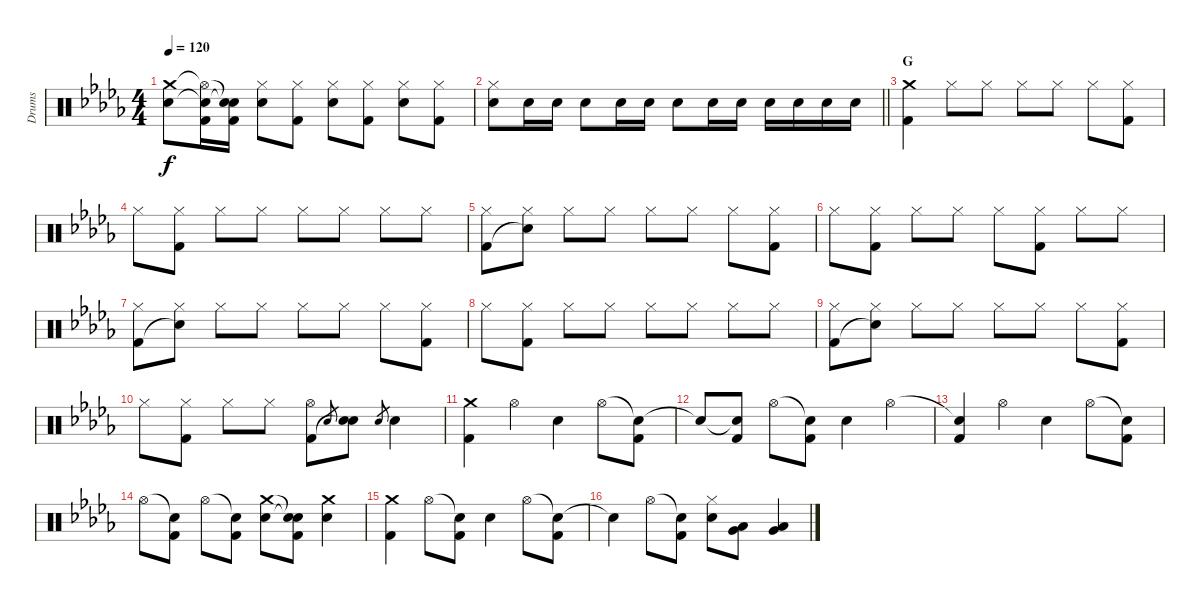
\track ("Drums" "Drums") {instrument percussion}
\staff {score}
\articulation defaults
\ts (4 4)
\tempo 120
\clef neutral
\ks db
("Crash medium (hit)" "Electric Snare (hit)").8{dy f} ("Hi-Hat (open)"{t} "Snare (hit)"{t} "Kick (hit) 2").16 ("Snare (hit)"{t} "Snare (hit)"{t} "Kick (hit) 2").16 ("Hi-Hat (closed)" "Electric Snare (hit)").8 ("Hi-Hat (closed)" "Kick (hit) 2").8 ("Hi-Hat (closed)" "Electric Snare (hit)").8 ("Hi-Hat (closed)" "Kick (hit) 2").8 ("Hi-Hat (closed)" "Electric Snare (hit)").8 ("Hi-Hat (closed)" "Kick (hit) 2").8 |
\barLineRight lightlight
("Hi-Hat (closed)" "Electric Snare (hit)").8 "Electric Snare (hit)".16 "Electric Snare (hit)".16 "Electric Snare (hit)".8 "Electric Snare (hit)".16 "Electric Snare (hit)".16 "Electric Snare (hit)".8 "Electric Snare (hit)".16 "Electric Snare (hit)".16 "Electric Snare (hit)".16 "Electric Snare (hit)".16 "Electric Snare (hit)".16 "Electric Snare (hit)".16 |
\section ("" "G")
("Crash medium (hit)" "Kick (hit) 2").4 "Hi-Hat (closed)".8 "Hi-Hat (closed)".8 "Hi-Hat (closed)".8 "Hi-Hat (closed)".8 "Hi-Hat (closed)".8 ("Hi-Hat (closed)" "Kick (hit) 2").8 |
"Hi-Hat (closed)".8 ("Hi-Hat (closed)" "Kick (hit) 2").8 "Hi-Hat (closed)".8 "Hi-Hat (closed)".8 "Hi-Hat (closed)".8 "Hi-Hat (closed)".8 "Hi-Hat (closed)".8 "Hi-Hat (closed)".8 |
("Hi-Hat (closed)" "Kick (hit) 2").8 ("Hi-Hat (closed)" "Snare (hit)"{t}).8 "Hi-Hat (closed)".8 "Hi-Hat (closed)".8 "Hi-Hat (closed)".8 "Hi-Hat (closed)".8 "Hi-Hat (closed)".8 ("Hi-Hat (closed)" "Kick (hit) 2").8 |
"Hi-Hat (closed)".8 ("Hi-Hat (closed)" "Kick (hit) 2").8 "Hi-Hat (closed)".8 "Hi-Hat (closed)".8 "Hi-Hat (closed)".8 ("Hi-Hat (closed)" "Kick (hit) 2").8 "Hi-Hat (closed)".8 "Hi-Hat (closed)".8 |
("Hi-Hat (closed)" "Kick (hit) 2").8 ("Hi-Hat (closed)" "Snare (hit)"{t}).8 "Hi-Hat (closed)".8 "Hi-Hat (closed)".8 "Hi-Hat (closed)".8 "Hi-Hat (closed)".8 "Hi-Hat (closed)".8 ("Hi-Hat (closed)" "Kick (hit) 2").8 |
"Hi-Hat (closed)".8 ("Hi-Hat (closed)" "Kick (hit) 2").8 "Hi-Hat (closed)".8 "Hi-Hat (closed)".8 "Hi-Hat (closed)".8 "Hi-Hat (closed)".8 "Hi-Hat (closed)".8 "Hi-Hat (closed)".8 |
("Hi-Hat (closed)" "Kick (hit) 2").8 ("Hi-Hat (closed)" "Snare (hit)"{t}).8 "Hi-Hat (closed)".8 "Hi-Hat (closed)".8 "Hi-Hat (closed)".8 "Hi-Hat (closed)".8 "Hi-Hat (closed)".8 ("Hi-Hat (closed)" "Kick (hit) 2").8 |
"Hi-Hat (closed)".8 ("Hi-Hat (closed)" "Kick (hit) 2").8 "Hi-Hat (closed)".8 "Hi-Hat (closed)".8 ("Hi-Hat (open)" "Kick (hit) 2").8 "Electric Snare (hit)".8{gr} ("Electric Snare (hit)" "Snare (hit)"{t}).8 "Electric Snare (hit)".8{gr} "Electric Snare (hit)".4 |
("Crash medium (hit)" "Kick (hit) 2").4 "Hi-Hat (open)".4 "Electric Snare (hit)".4 "Hi-Hat (open)".8 ("Snare (hit)"{t} "Kick (hit) 2").8 |
"Snare (hit)"{t}.8 ("Snare (hit)"{t} "Kick (hit) 2").8 "Hi-Hat (open)".8 ("Snare (hit)"{t} "Kick (hit) 2").8 "Electric Snare (hit)".4 "Hi-Hat (open)".4 |
("Snare (hit)"{t} "Kick (hit) 2").4 "Hi-Hat (open)".4 "Electric Snare (hit)".4 "Hi-Hat (open)".8 ("Snare (hit)"{t} "Kick (hit) 2").8 |
"Hi-Hat (open)".8 ("Snare (hit)"{t} "Kick (hit) 2").8 "Hi-Hat (open)".8 ("Snare (hit)"{t} "Kick (hit) 2").8 ("Crash medium (hit)" "Electric Snare (hit)").8 ("Snare (hit)"{t} "Snare (hit)"{t} "Kick (hit) 2").8 ("Crash medium (hit)" "Electric Snare (hit)").4 |
("Crash medium (hit)" "Kick (hit) 2").4 "Hi-Hat (open)".8 ("Snare (hit)"{t} "Kick (hit) 2").8 "Electric Snare (hit)".4 "Hi-Hat (open)".8 ("Snare (hit)"{t} "Kick (hit) 2").8 |
"Snare (hit)"{t}.4 "Hi-Hat (open)".8 ("Snare (hit)"{t} "Kick (hit) 2").8 ("Hi-Hat (closed)" "Electric Snare (hit)").8 ("Low Tom (hit)" "Very Low Tom (hit)").8 ("Low Tom (hit)" "Very Low Tom (hit)").4
